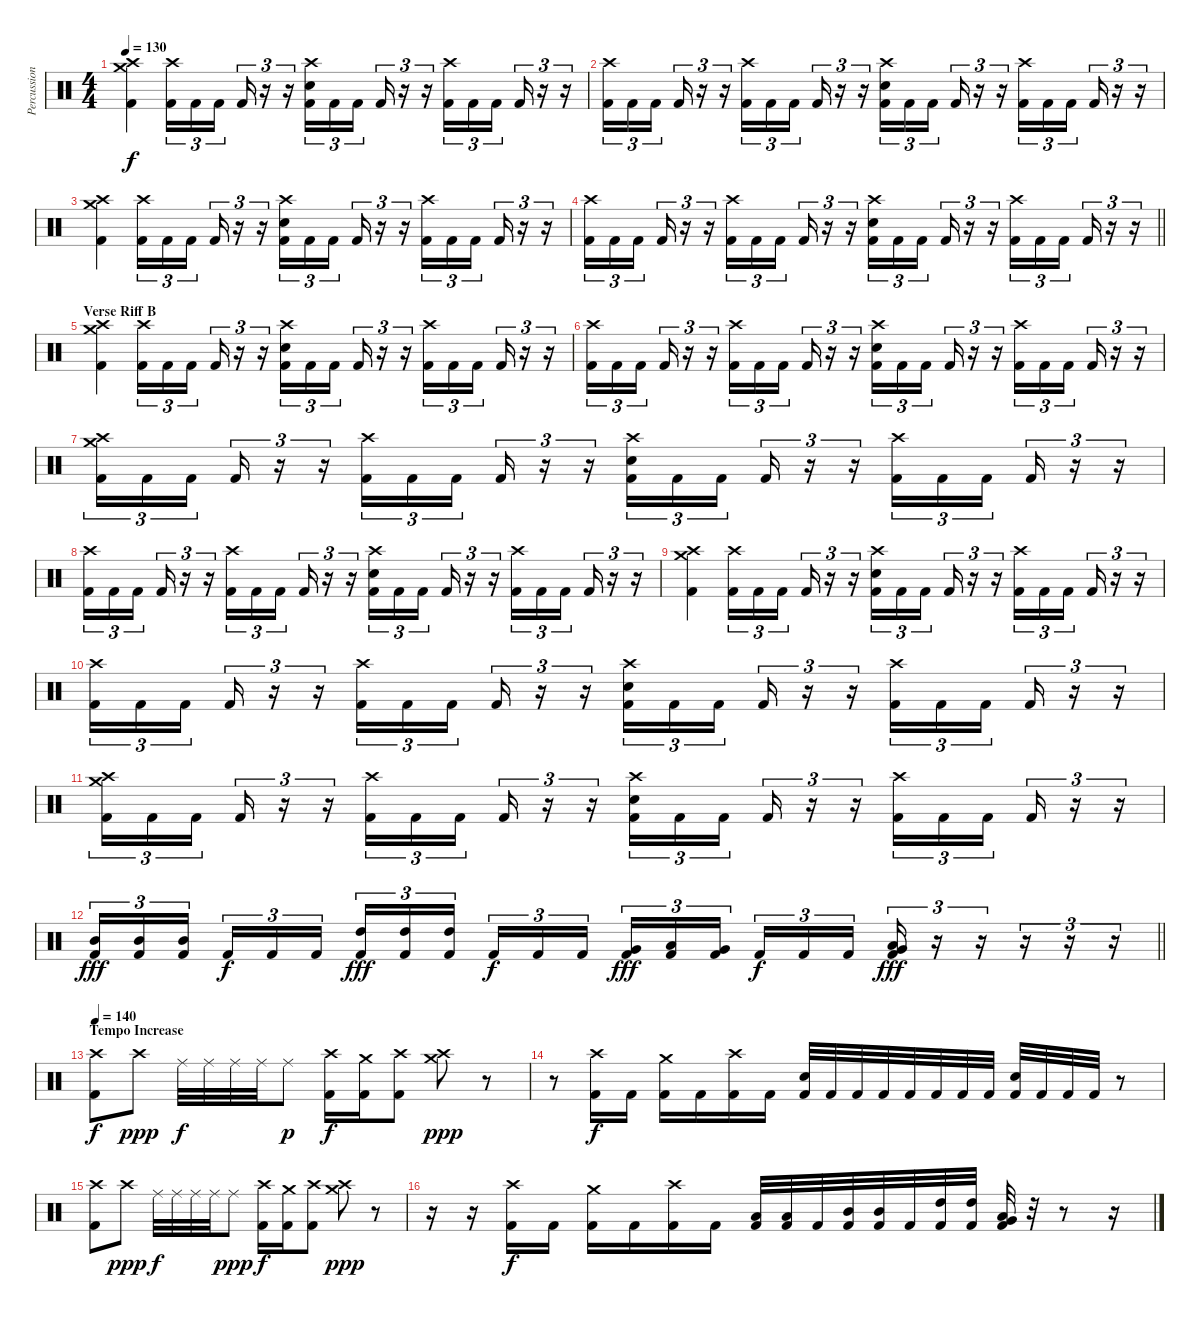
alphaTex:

\track ("Percussion" "Percussion") {instrument percussion}
\staff {score}
\articulation defaults
\ts (4 4)
\tempo 130
\clef neutral
\ks c
("Crash high (hit)" "Crash medium (hit)" "Kick (hit) 2").4{dy f} ("Crash high (hit)" "Kick (hit) 2").16{tu (3 2)} "Kick (hit) 2".16{tu (3 2)} "Kick (hit) 2".16{tu (3 2) beam splitsecondary} "Kick (hit) 2".16{tu (3 2)} r.16{tu (3 2)} r.16{tu (3 2)} ("Crash high (hit)" "Electric Snare (hit)" "Kick (hit) 2").16{tu (3 2)} "Kick (hit) 2".16{tu (3 2)} "Kick (hit) 2".16{tu (3 2) beam splitsecondary} "Kick (hit) 2".16{tu (3 2)} r.16{tu (3 2)} r.16{tu (3 2)} ("Crash high (hit)" "Kick (hit) 2").16{tu (3 2)} "Kick (hit) 2".16{tu (3 2)} "Kick (hit) 2".16{tu (3 2) beam splitsecondary} "Kick (hit) 2".16{tu (3 2)} r.16{tu (3 2)} r.16{tu (3 2)} |
("Crash high (hit)" "Kick (hit) 2").16{tu (3 2)} "Kick (hit) 2".16{tu (3 2)} "Kick (hit) 2".16{tu (3 2) beam splitsecondary} "Kick (hit) 2".16{tu (3 2)} r.16{tu (3 2)} r.16{tu (3 2)} ("Crash high (hit)" "Kick (hit) 2").16{tu (3 2)} "Kick (hit) 2".16{tu (3 2)} "Kick (hit) 2".16{tu (3 2) beam splitsecondary} "Kick (hit) 2".16{tu (3 2)} r.16{tu (3 2)} r.16{tu (3 2)} ("Crash high (hit)" "Electric Snare (hit)" "Kick (hit) 2").16{tu (3 2)} "Kick (hit) 2".16{tu (3 2)} "Kick (hit) 2".16{tu (3 2) beam splitsecondary} "Kick (hit) 2".16{tu (3 2)} r.16{tu (3 2)} r.16{tu (3 2)} ("Crash high (hit)" "Kick (hit) 2").16{tu (3 2)} "Kick (hit) 2".16{tu (3 2)} "Kick (hit) 2".16{tu (3 2) beam splitsecondary} "Kick (hit) 2".16{tu (3 2)} r.16{tu (3 2)} r.16{tu (3 2)} |
("Crash high (hit)" "Crash medium (hit)" "Kick (hit) 2").4 ("Crash high (hit)" "Kick (hit) 2").16{tu (3 2)} "Kick (hit) 2".16{tu (3 2)} "Kick (hit) 2".16{tu (3 2) beam splitsecondary} "Kick (hit) 2".16{tu (3 2)} r.16{tu (3 2)} r.16{tu (3 2)} ("Crash high (hit)" "Electric Snare (hit)" "Kick (hit) 2").16{tu (3 2)} "Kick (hit) 2".16{tu (3 2)} "Kick (hit) 2".16{tu (3 2) beam splitsecondary} "Kick (hit) 2".16{tu (3 2)} r.16{tu (3 2)} r.16{tu (3 2)} ("Crash high (hit)" "Kick (hit) 2").16{tu (3 2)} "Kick (hit) 2".16{tu (3 2)} "Kick (hit) 2".16{tu (3 2) beam splitsecondary} "Kick (hit) 2".16{tu (3 2)} r.16{tu (3 2)} r.16{tu (3 2)} |
\barLineRight lightlight
("Crash high (hit)" "Kick (hit) 2").16{tu (3 2)} "Kick (hit) 2".16{tu (3 2)} "Kick (hit) 2".16{tu (3 2) beam splitsecondary} "Kick (hit) 2".16{tu (3 2)} r.16{tu (3 2)} r.16{tu (3 2)} ("Crash high (hit)" "Kick (hit) 2").16{tu (3 2)} "Kick (hit) 2".16{tu (3 2)} "Kick (hit) 2".16{tu (3 2) beam splitsecondary} "Kick (hit) 2".16{tu (3 2)} r.16{tu (3 2)} r.16{tu (3 2)} ("Crash high (hit)" "Electric Snare (hit)" "Kick (hit) 2").16{tu (3 2)} "Kick (hit) 2".16{tu (3 2)} "Kick (hit) 2".16{tu (3 2) beam splitsecondary} "Kick (hit) 2".16{tu (3 2)} r.16{tu (3 2)} r.16{tu (3 2)} ("Crash high (hit)" "Kick (hit) 2").16{tu (3 2)} "Kick (hit) 2".16{tu (3 2)} "Kick (hit) 2".16{tu (3 2) beam splitsecondary} "Kick (hit) 2".16{tu (3 2)} r.16{tu (3 2)} r.16{tu (3 2)} |
\section ("" "Verse Riff B")
("Crash high (hit)" "Crash medium (hit)" "Kick (hit) 2").4 ("Crash high (hit)" "Kick (hit) 2").16{tu (3 2)} "Kick (hit) 2".16{tu (3 2)} "Kick (hit) 2".16{tu (3 2) beam splitsecondary} "Kick (hit) 2".16{tu (3 2)} r.16{tu (3 2)} r.16{tu (3 2)} ("Crash high (hit)" "Electric Snare (hit)" "Kick (hit) 2").16{tu (3 2)} "Kick (hit) 2".16{tu (3 2)} "Kick (hit) 2".16{tu (3 2) beam splitsecondary} "Kick (hit) 2".16{tu (3 2)} r.16{tu (3 2)} r.16{tu (3 2)} ("Crash high (hit)" "Kick (hit) 2").16{tu (3 2)} "Kick (hit) 2".16{tu (3 2)} "Kick (hit) 2".16{tu (3 2) beam splitsecondary} "Kick (hit) 2".16{tu (3 2)} r.16{tu (3 2)} r.16{tu (3 2)} |
("Crash high (hit)" "Kick (hit) 2").16{tu (3 2)} "Kick (hit) 2".16{tu (3 2)} "Kick (hit) 2".16{tu (3 2) beam splitsecondary} "Kick (hit) 2".16{tu (3 2)} r.16{tu (3 2)} r.16{tu (3 2)} ("Crash high (hit)" "Kick (hit) 2").16{tu (3 2)} "Kick (hit) 2".16{tu (3 2)} "Kick (hit) 2".16{tu (3 2) beam splitsecondary} "Kick (hit) 2".16{tu (3 2)} r.16{tu (3 2)} r.16{tu (3 2)} ("Crash high (hit)" "Electric Snare (hit)" "Kick (hit) 2").16{tu (3 2)} "Kick (hit) 2".16{tu (3 2)} "Kick (hit) 2".16{tu (3 2) beam splitsecondary} "Kick (hit) 2".16{tu (3 2)} r.16{tu (3 2)} r.16{tu (3 2)} ("Crash high (hit)" "Kick (hit) 2").16{tu (3 2)} "Kick (hit) 2".16{tu (3 2)} "Kick (hit) 2".16{tu (3 2) beam splitsecondary} "Kick (hit) 2".16{tu (3 2)} r.16{tu (3 2)} r.16{tu (3 2)} |
("Crash high (hit)" "Crash medium (hit)" "Kick (hit) 2").16{tu (3 2)} "Kick (hit) 2".16{tu (3 2)} "Kick (hit) 2".16{tu (3 2) beam splitsecondary} "Kick (hit) 2".16{tu (3 2)} r.16{tu (3 2)} r.16{tu (3 2)} ("Crash high (hit)" "Kick (hit) 2").16{tu (3 2)} "Kick (hit) 2".16{tu (3 2)} "Kick (hit) 2".16{tu (3 2) beam splitsecondary} "Kick (hit) 2".16{tu (3 2)} r.16{tu (3 2)} r.16{tu (3 2)} ("Crash high (hit)" "Electric Snare (hit)" "Kick (hit) 2").16{tu (3 2)} "Kick (hit) 2".16{tu (3 2)} "Kick (hit) 2".16{tu (3 2) beam splitsecondary} "Kick (hit) 2".16{tu (3 2)} r.16{tu (3 2)} r.16{tu (3 2)} ("Crash high (hit)" "Kick (hit) 2").16{tu (3 2)} "Kick (hit) 2".16{tu (3 2)} "Kick (hit) 2".16{tu (3 2) beam splitsecondary} "Kick (hit) 2".16{tu (3 2)} r.16{tu (3 2)} r.16{tu (3 2)} |
("Crash high (hit)" "Kick (hit) 2").16{tu (3 2)} "Kick (hit) 2".16{tu (3 2)} "Kick (hit) 2".16{tu (3 2) beam splitsecondary} "Kick (hit) 2".16{tu (3 2)} r.16{tu (3 2)} r.16{tu (3 2)} ("Crash high (hit)" "Kick (hit) 2").16{tu (3 2)} "Kick (hit) 2".16{tu (3 2)} "Kick (hit) 2".16{tu (3 2) beam splitsecondary} "Kick (hit) 2".16{tu (3 2)} r.16{tu (3 2)} r.16{tu (3 2)} ("Crash high (hit)" "Electric Snare (hit)" "Kick (hit) 2").16{tu (3 2)} "Kick (hit) 2".16{tu (3 2)} "Kick (hit) 2".16{tu (3 2) beam splitsecondary} "Kick (hit) 2".16{tu (3 2)} r.16{tu (3 2)} r.16{tu (3 2)} ("Crash high (hit)" "Kick (hit) 2").16{tu (3 2)} "Kick (hit) 2".16{tu (3 2)} "Kick (hit) 2".16{tu (3 2) beam splitsecondary} "Kick (hit) 2".16{tu (3 2)} r.16{tu (3 2)} r.16{tu (3 2)} |
("Crash high (hit)" "Crash medium (hit)" "Kick (hit) 2").4 ("Crash high (hit)" "Kick (hit) 2").16{tu (3 2)} "Kick (hit) 2".16{tu (3 2)} "Kick (hit) 2".16{tu (3 2) beam splitsecondary} "Kick (hit) 2".16{tu (3 2)} r.16{tu (3 2)} r.16{tu (3 2)} ("Crash high (hit)" "Electric Snare (hit)" "Kick (hit) 2").16{tu (3 2)} "Kick (hit) 2".16{tu (3 2)} "Kick (hit) 2".16{tu (3 2) beam splitsecondary} "Kick (hit) 2".16{tu (3 2)} r.16{tu (3 2)} r.16{tu (3 2)} ("Crash high (hit)" "Kick (hit) 2").16{tu (3 2)} "Kick (hit) 2".16{tu (3 2)} "Kick (hit) 2".16{tu (3 2) beam splitsecondary} "Kick (hit) 2".16{tu (3 2)} r.16{tu (3 2)} r.16{tu (3 2)} |
("Crash high (hit)" "Kick (hit) 2").16{tu (3 2)} "Kick (hit) 2".16{tu (3 2)} "Kick (hit) 2".16{tu (3 2) beam splitsecondary} "Kick (hit) 2".16{tu (3 2)} r.16{tu (3 2)} r.16{tu (3 2)} ("Crash high (hit)" "Kick (hit) 2").16{tu (3 2)} "Kick (hit) 2".16{tu (3 2)} "Kick (hit) 2".16{tu (3 2) beam splitsecondary} "Kick (hit) 2".16{tu (3 2)} r.16{tu (3 2)} r.16{tu (3 2)} ("Crash high (hit)" "Electric Snare (hit)" "Kick (hit) 2").16{tu (3 2)} "Kick (hit) 2".16{tu (3 2)} "Kick (hit) 2".16{tu (3 2) beam splitsecondary} "Kick (hit) 2".16{tu (3 2)} r.16{tu (3 2)} r.16{tu (3 2)} ("Crash high (hit)" "Kick (hit) 2").16{tu (3 2)} "Kick (hit) 2".16{tu (3 2)} "Kick (hit) 2".16{tu (3 2) beam splitsecondary} "Kick (hit) 2".16{tu (3 2)} r.16{tu (3 2)} r.16{tu (3 2)} |
("Crash high (hit)" "Crash medium (hit)" "Kick (hit) 2").16{tu (3 2)} "Kick (hit) 2".16{tu (3 2)} "Kick (hit) 2".16{tu (3 2) beam splitsecondary} "Kick (hit) 2".16{tu (3 2)} r.16{tu (3 2)} r.16{tu (3 2)} ("Crash high (hit)" "Kick (hit) 2").16{tu (3 2)} "Kick (hit) 2".16{tu (3 2)} "Kick (hit) 2".16{tu (3 2) beam splitsecondary} "Kick (hit) 2".16{tu (3 2)} r.16{tu (3 2)} r.16{tu (3 2)} ("Crash high (hit)" "Electric Snare (hit)" "Kick (hit) 2").16{tu (3 2)} "Kick (hit) 2".16{tu (3 2)} "Kick (hit) 2".16{tu (3 2) beam splitsecondary} "Kick (hit) 2".16{tu (3 2)} r.16{tu (3 2)} r.16{tu (3 2)} ("Crash high (hit)" "Kick (hit) 2").16{tu (3 2)} "Kick (hit) 2".16{tu (3 2)} "Kick (hit) 2".16{tu (3 2) beam splitsecondary} "Kick (hit) 2".16{tu (3 2)} r.16{tu (3 2)} r.16{tu (3 2)} |
\barLineRight lightlight
("Mid Tom (hit)" "Kick (hit) 2").16{tu (3 2) dy fff} ("Mid Tom (hit)" "Kick (hit) 2").16{tu (3 2)} ("Mid Tom (hit)" "Kick (hit) 2").16{tu (3 2) beam splitsecondary} "Kick (hit) 2".16{tu (3 2) dy f} "Kick (hit) 2".16{tu (3 2)} "Kick (hit) 2".16{tu (3 2)} ("High Tom (hit)" "Kick (hit) 2").16{tu (3 2) dy fff} ("High Tom (hit)" "Kick (hit) 2").16{tu (3 2)} ("High Tom (hit)" "Kick (hit) 2").16{tu (3 2) beam splitsecondary} "Kick (hit) 2".16{tu (3 2) dy f} "Kick (hit) 2".16{tu (3 2)} "Kick (hit) 2".16{tu (3 2)} ("Very Low Tom (hit)" "Kick (hit) 2").16{tu (3 2) dy fff} ("Low Tom (hit)" "Kick (hit) 2").16{tu (3 2)} ("Very Low Tom (hit)" "Kick (hit) 2").16{tu (3 2) beam splitsecondary} "Kick (hit) 2".16{tu (3 2) dy f} "Kick (hit) 2".16{tu (3 2)} "Kick (hit) 2".16{tu (3 2)} ("Very Low Tom (hit)" "Low Floor Tom (hit)" "Kick (hit) 2").16{tu (3 2) dy fff} r.16{tu (3 2)} r.16{tu (3 2)} r.16{tu (3 2)} r.16{tu (3 2)} r.16{tu (3 2)} |
\section ("" "Tempo Increase")
\tempo 140
("Crash high (hit)" "Kick (hit) 2").8{dy f} "Crash high (hit)".8{dy ppp} "Ride (middle)".32{dy f} "Ride (middle)".32 "Ride (middle)".32 "Ride (middle)".32 "Ride (middle)".8{dy p} ("Crash high (hit)" "Kick (hit) 2").16{dy f} ("Crash medium (hit)" "Kick (hit) 2").16 ("Crash high (hit)" "Kick (hit) 2").8 ("Crash high (hit)" "Crash medium (hit)").8{dy ppp} r.8 |
r.8 ("Crash high (hit)" "Kick (hit) 2").16{dy f} "Kick (hit) 2".16 ("Crash medium (hit)" "Kick (hit) 2").16 "Kick (hit) 2".16 ("Crash high (hit)" "Kick (hit) 2").16 "Kick (hit) 2".16 ("Electric Snare (hit)" "Kick (hit) 2").32 "Kick (hit) 2".32 "Kick (hit) 2".32 "Kick (hit) 2".32 "Kick (hit) 2".32 "Kick (hit) 2".32 "Kick (hit) 2".32 "Kick (hit) 2".32 ("Electric Snare (hit)" "Kick (hit) 2").32 "Kick (hit) 2".32 "Kick (hit) 2".32 "Kick (hit) 2".32 r.8 |
("Crash high (hit)" "Kick (hit) 2").8 "Crash high (hit)".8{dy ppp} "Ride (middle)".32{dy f} "Ride (middle)".32 "Ride (middle)".32 "Ride (middle)".32 "Ride (middle)".8{dy ppp} ("Crash high (hit)" "Kick (hit) 2").16{dy f} ("Crash medium (hit)" "Kick (hit) 2").16 ("Crash high (hit)" "Kick (hit) 2").8 ("Crash high (hit)" "Crash medium (hit)").8{dy ppp} r.8 |
r.16 r.16 ("Crash high (hit)" "Kick (hit) 2").16{dy f} "Kick (hit) 2".16 ("Crash medium (hit)" "Kick (hit) 2").16 "Kick (hit) 2".16 ("Crash high (hit)" "Kick (hit) 2").16 "Kick (hit) 2".16 ("Low Tom (hit)" "Kick (hit) 2").32 ("Low Tom (hit)" "Kick (hit) 2").32 "Kick (hit) 2".32 ("Mid Tom (hit)" "Kick (hit) 2").32 ("Mid Tom (hit)" "Kick (hit) 2").32 "Kick (hit) 2".32 ("High Tom (hit)" "Kick (hit) 2").32 ("High Tom (hit)" "Kick (hit) 2").32 ("Low Tom (hit)" "Very Low Tom (hit)" "Kick (hit) 2").32 r.32 r.8 r.16
